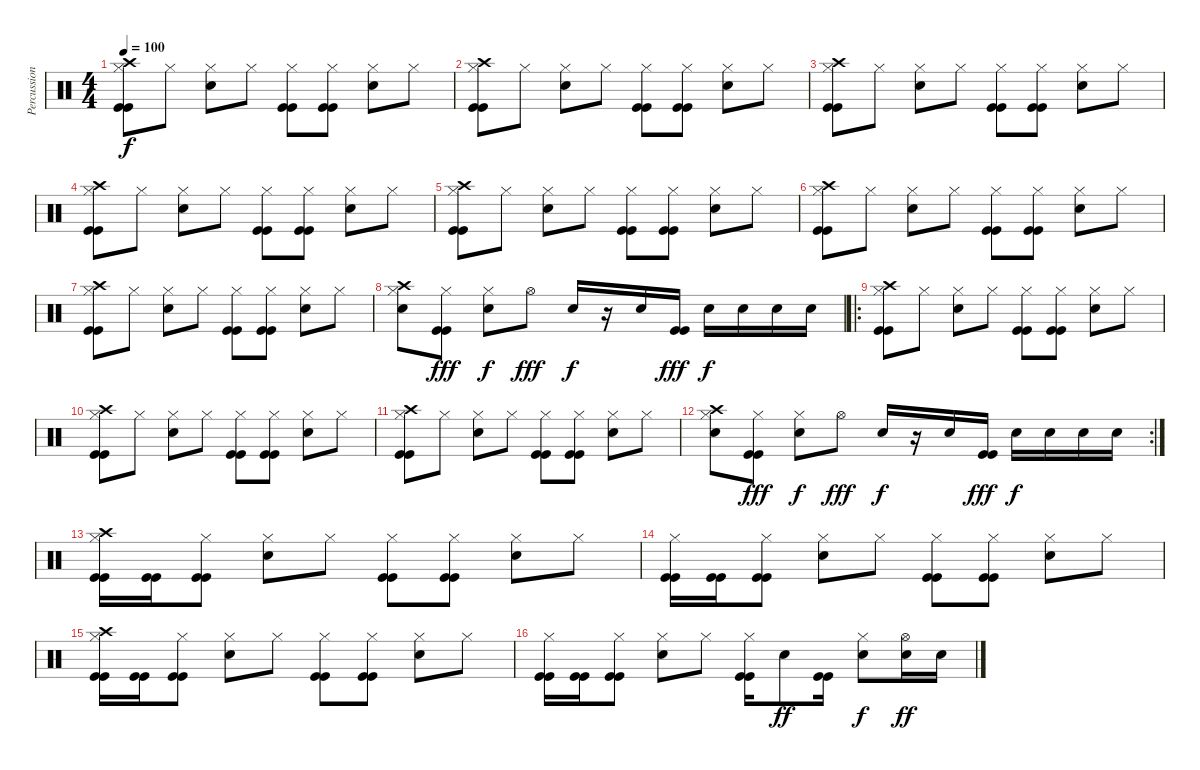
\track ("Percussion" "Percussion") {instrument percussion}
\staff {score}
\articulation defaults
\ts (4 4)
\tempo 100
\clef neutral
\ks c
("Kick (hit)" "Kick (hit)" "Hi-Hat (closed)" "Crash high (hit)").8{dy f} "Hi-Hat (closed)".8 ("Snare (hit) 2" "Hi-Hat (closed)").8 "Hi-Hat (closed)".8 ("Kick (hit)" "Kick (hit)" "Hi-Hat (closed)").8 ("Kick (hit)" "Kick (hit)" "Hi-Hat (closed)").8 ("Snare (hit) 2" "Hi-Hat (closed)").8 "Hi-Hat (closed)".8 |
("Kick (hit)" "Kick (hit)" "Hi-Hat (closed)" "Crash high (hit)").8 "Hi-Hat (closed)".8 ("Snare (hit) 2" "Hi-Hat (closed)").8 "Hi-Hat (closed)".8 ("Kick (hit)" "Kick (hit)" "Hi-Hat (closed)").8 ("Kick (hit)" "Kick (hit)" "Hi-Hat (closed)").8 ("Snare (hit) 2" "Hi-Hat (closed)").8 "Hi-Hat (closed)".8 |
("Kick (hit)" "Kick (hit)" "Hi-Hat (closed)" "Crash high (hit)").8 "Hi-Hat (closed)".8 ("Snare (hit) 2" "Hi-Hat (closed)").8 "Hi-Hat (closed)".8 ("Kick (hit)" "Kick (hit)" "Hi-Hat (closed)").8 ("Kick (hit)" "Kick (hit)" "Hi-Hat (closed)").8 ("Snare (hit) 2" "Hi-Hat (closed)").8 "Hi-Hat (closed)".8 |
("Kick (hit)" "Kick (hit)" "Hi-Hat (closed)" "Crash high (hit)").8 "Hi-Hat (closed)".8 ("Snare (hit) 2" "Hi-Hat (closed)").8 "Hi-Hat (closed)".8 ("Kick (hit)" "Kick (hit)" "Hi-Hat (closed)").8 ("Kick (hit)" "Kick (hit)" "Hi-Hat (closed)").8 ("Snare (hit) 2" "Hi-Hat (closed)").8 "Hi-Hat (closed)".8 |
("Kick (hit)" "Kick (hit)" "Hi-Hat (closed)" "Crash high (hit)").8 "Hi-Hat (closed)".8 ("Snare (hit) 2" "Hi-Hat (closed)").8 "Hi-Hat (closed)".8 ("Kick (hit)" "Kick (hit)" "Hi-Hat (closed)").8 ("Kick (hit)" "Kick (hit)" "Hi-Hat (closed)").8 ("Snare (hit) 2" "Hi-Hat (closed)").8 "Hi-Hat (closed)".8 |
("Kick (hit)" "Kick (hit)" "Hi-Hat (closed)" "Crash high (hit)").8 "Hi-Hat (closed)".8 ("Snare (hit) 2" "Hi-Hat (closed)").8 "Hi-Hat (closed)".8 ("Kick (hit)" "Kick (hit)" "Hi-Hat (closed)").8 ("Kick (hit)" "Kick (hit)" "Hi-Hat (closed)").8 ("Snare (hit) 2" "Hi-Hat (closed)").8 "Hi-Hat (closed)".8 |
("Kick (hit)" "Kick (hit)" "Hi-Hat (closed)" "Crash high (hit)").8 "Hi-Hat (closed)".8 ("Snare (hit) 2" "Hi-Hat (closed)").8 "Hi-Hat (closed)".8 ("Kick (hit)" "Kick (hit)" "Hi-Hat (closed)").8 ("Kick (hit)" "Kick (hit)" "Hi-Hat (closed)").8 ("Snare (hit) 2" "Hi-Hat (closed)").8 "Hi-Hat (closed)".8 |
("Snare (hit) 2" "Hi-Hat (closed)" "Crash high (hit)").8 ("Kick (hit)" "Kick (hit)" "Hi-Hat (closed)").8{dy fff} ("Snare (hit) 2" "Hi-Hat (closed)").8{dy f} "Hi-Hat (open)".8{dy fff} "Snare (hit) 2".16{dy f} r.16 "Snare (hit) 2".16 ("Kick (hit)" "Kick (hit)").16{dy fff} "Snare (hit) 2".16{dy f} "Snare (hit) 2".16 "Snare (hit) 2".16 "Snare (hit) 2".16 |
\ro
("Kick (hit)" "Kick (hit)" "Hi-Hat (closed)" "Crash high (hit)").8 "Hi-Hat (closed)".8 ("Snare (hit) 2" "Hi-Hat (closed)").8 "Hi-Hat (closed)".8 ("Kick (hit)" "Kick (hit)" "Hi-Hat (closed)").8 ("Kick (hit)" "Kick (hit)" "Hi-Hat (closed)").8 ("Snare (hit) 2" "Hi-Hat (closed)").8 "Hi-Hat (closed)".8 |
("Kick (hit)" "Kick (hit)" "Hi-Hat (closed)" "Crash high (hit)").8 "Hi-Hat (closed)".8 ("Snare (hit) 2" "Hi-Hat (closed)").8 "Hi-Hat (closed)".8 ("Kick (hit)" "Kick (hit)" "Hi-Hat (closed)").8 ("Kick (hit)" "Kick (hit)" "Hi-Hat (closed)").8 ("Snare (hit) 2" "Hi-Hat (closed)").8 "Hi-Hat (closed)".8 |
("Kick (hit)" "Kick (hit)" "Hi-Hat (closed)" "Crash high (hit)").8 "Hi-Hat (closed)".8 ("Snare (hit) 2" "Hi-Hat (closed)").8 "Hi-Hat (closed)".8 ("Kick (hit)" "Kick (hit)" "Hi-Hat (closed)").8 ("Kick (hit)" "Kick (hit)" "Hi-Hat (closed)").8 ("Snare (hit) 2" "Hi-Hat (closed)").8 "Hi-Hat (closed)".8 |
\rc 2
("Snare (hit) 2" "Hi-Hat (closed)" "Crash high (hit)").8 ("Kick (hit)" "Kick (hit)" "Hi-Hat (closed)").8{dy fff} ("Snare (hit) 2" "Hi-Hat (closed)").8{dy f} "Hi-Hat (open)".8{dy fff} "Snare (hit) 2".16{dy f} r.16 "Snare (hit) 2".16 ("Kick (hit)" "Kick (hit)").16{dy fff} "Snare (hit) 2".16{dy f} "Snare (hit) 2".16 "Snare (hit) 2".16 "Snare (hit) 2".16 |
("Kick (hit)" "Kick (hit)" "Hi-Hat (closed)" "Crash high (hit)").16 ("Kick (hit)" "Kick (hit)").16 ("Kick (hit)" "Kick (hit)" "Hi-Hat (closed)").8 ("Snare (hit) 2" "Hi-Hat (closed)").8 "Hi-Hat (closed)".8 ("Kick (hit)" "Kick (hit)" "Hi-Hat (closed)").8 ("Kick (hit)" "Kick (hit)" "Hi-Hat (closed)").8 ("Snare (hit) 2" "Hi-Hat (closed)").8 "Hi-Hat (closed)".8 |
("Kick (hit)" "Kick (hit)" "Hi-Hat (closed)").16 ("Kick (hit)" "Kick (hit)").16 ("Kick (hit)" "Kick (hit)" "Hi-Hat (closed)").8 ("Snare (hit) 2" "Hi-Hat (closed)").8 "Hi-Hat (closed)".8 ("Kick (hit)" "Kick (hit)" "Hi-Hat (closed)").8 ("Kick (hit)" "Kick (hit)" "Hi-Hat (closed)").8 ("Snare (hit) 2" "Hi-Hat (closed)").8 "Hi-Hat (closed)".8 |
("Kick (hit)" "Kick (hit)" "Hi-Hat (closed)" "Crash high (hit)").16 ("Kick (hit)" "Kick (hit)").16 ("Kick (hit)" "Kick (hit)" "Hi-Hat (closed)").8 ("Snare (hit) 2" "Hi-Hat (closed)").8 "Hi-Hat (closed)".8 ("Kick (hit)" "Kick (hit)" "Hi-Hat (closed)").8 ("Kick (hit)" "Kick (hit)" "Hi-Hat (closed)").8 ("Snare (hit) 2" "Hi-Hat (closed)").8 "Hi-Hat (closed)".8 |
("Kick (hit)" "Kick (hit)" "Hi-Hat (closed)").16 ("Kick (hit)" "Kick (hit)").16 ("Kick (hit)" "Kick (hit)" "Hi-Hat (closed)").8 ("Snare (hit) 2" "Hi-Hat (closed)").8 "Hi-Hat (closed)".8 ("Kick (hit)" "Kick (hit)" "Hi-Hat (closed)").16 "Snare (hit) 2".8{dy ff} ("Kick (hit)" "Kick (hit)").16 ("Snare (hit) 2" "Hi-Hat (closed)").8{dy f} ("Snare (hit) 2" "Hi-Hat (open)").16{dy ff} "Snare (hit) 2".16
